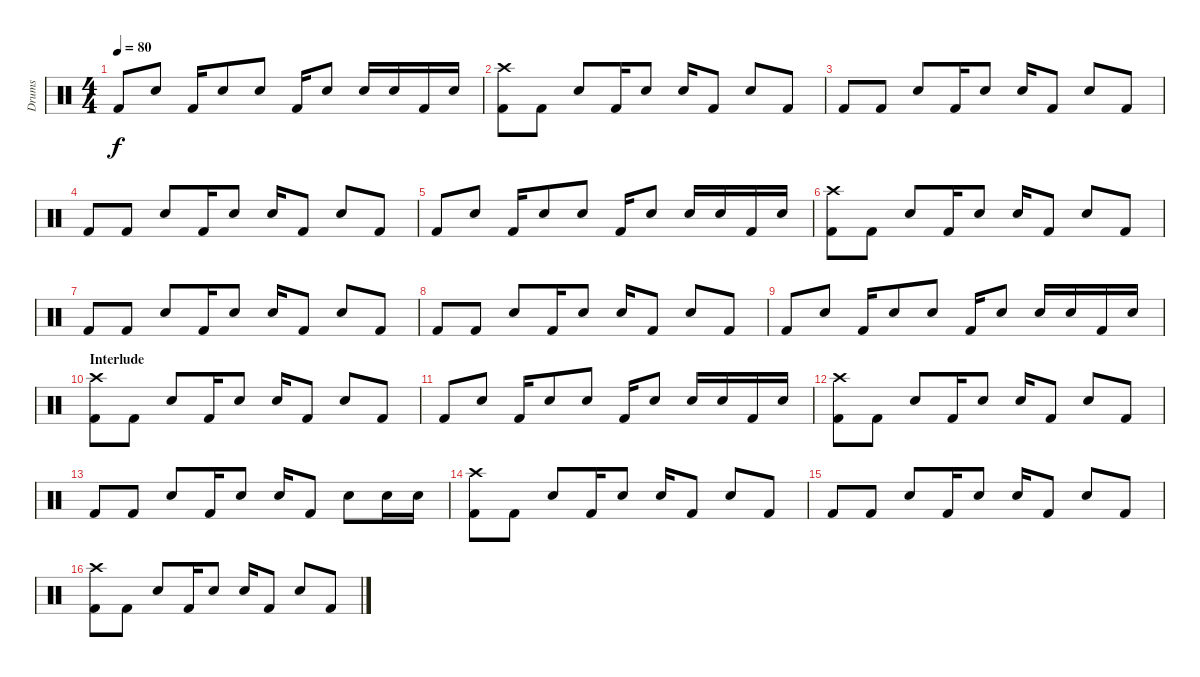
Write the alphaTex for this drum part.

\track ("Drums" "Drums") {instrument percussion}
\staff {score}
\articulation defaults
\ts (4 4)
\tempo 80
\clef neutral
\ks c "Kick (hit) 2".8{dy f} "Electric Snare (hit)".8 "Kick (hit) 2".16 "Electric Snare (hit)".8 "Electric Snare (hit)".8 "Kick (hit) 2".16 "Electric Snare (hit)".8 "Electric Snare (hit)".16 "Electric Snare (hit)".16 "Kick (hit) 2".16 "Electric Snare (hit)".16
|
("Crash high (hit)" "Kick (hit) 2").8 "Kick (hit) 2".8 "Electric Snare (hit)".8 "Kick (hit) 2".16 "Electric Snare (hit)".8 "Electric Snare (hit)".16 "Kick (hit) 2".8 "Electric Snare (hit)".8 "Kick (hit) 2".8 |
"Kick (hit) 2".8 "Kick (hit) 2".8 "Electric Snare (hit)".8 "Kick (hit) 2".16 "Electric Snare (hit)".8 "Electric Snare (hit)".16 "Kick (hit) 2".8 "Electric Snare (hit)".8 "Kick (hit) 2".8 |
"Kick (hit) 2".8 "Kick (hit) 2".8 "Electric Snare (hit)".8 "Kick (hit) 2".16 "Electric Snare (hit)".8 "Electric Snare (hit)".16 "Kick (hit) 2".8 "Electric Snare (hit)".8 "Kick (hit) 2".8 |
"Kick (hit) 2".8 "Electric Snare (hit)".8 "Kick (hit) 2".16 "Electric Snare (hit)".8 "Electric Snare (hit)".8 "Kick (hit) 2".16 "Electric Snare (hit)".8 "Electric Snare (hit)".16 "Electric Snare (hit)".16 "Kick (hit) 2".16 "Electric Snare (hit)".16 |
("Crash high (hit)" "Kick (hit) 2").8 "Kick (hit) 2".8 "Electric Snare (hit)".8 "Kick (hit) 2".16 "Electric Snare (hit)".8 "Electric Snare (hit)".16 "Kick (hit) 2".8 "Electric Snare (hit)".8 "Kick (hit) 2".8 |
"Kick (hit) 2".8 "Kick (hit) 2".8 "Electric Snare (hit)".8 "Kick (hit) 2".16 "Electric Snare (hit)".8 "Electric Snare (hit)".16 "Kick (hit) 2".8 "Electric Snare (hit)".8 "Kick (hit) 2".8 |
"Kick (hit) 2".8 "Kick (hit) 2".8 "Electric Snare (hit)".8 "Kick (hit) 2".16 "Electric Snare (hit)".8 "Electric Snare (hit)".16 "Kick (hit) 2".8 "Electric Snare (hit)".8 "Kick (hit) 2".8 |
"Kick (hit) 2".8 "Electric Snare (hit)".8 "Kick (hit) 2".16 "Electric Snare (hit)".8 "Electric Snare (hit)".8 "Kick (hit) 2".16 "Electric Snare (hit)".8 "Electric Snare (hit)".16 "Electric Snare (hit)".16 "Kick (hit) 2".16 "Electric Snare (hit)".16 |
\section ("" "Interlude")
("Crash high (hit)" "Kick (hit) 2").8 "Kick (hit) 2".8 "Electric Snare (hit)".8 "Kick (hit) 2".16 "Electric Snare (hit)".8 "Electric Snare (hit)".16 "Kick (hit) 2".8 "Electric Snare (hit)".8 "Kick (hit) 2".8 |
"Kick (hit) 2".8 "Electric Snare (hit)".8 "Kick (hit) 2".16 "Electric Snare (hit)".8 "Electric Snare (hit)".8 "Kick (hit) 2".16 "Electric Snare (hit)".8 "Electric Snare (hit)".16 "Electric Snare (hit)".16 "Kick (hit) 2".16 "Electric Snare (hit)".16 |
("Crash high (hit)" "Kick (hit) 2").8 "Kick (hit) 2".8 "Electric Snare (hit)".8 "Kick (hit) 2".16 "Electric Snare (hit)".8 "Electric Snare (hit)".16 "Kick (hit) 2".8 "Electric Snare (hit)".8 "Kick (hit) 2".8 |
"Kick (hit) 2".8 "Kick (hit) 2".8 "Electric Snare (hit)".8 "Kick (hit) 2".16 "Electric Snare (hit)".8 "Electric Snare (hit)".16 "Kick (hit) 2".8 "Electric Snare (hit)".8 "Electric Snare (hit)".16 "Electric Snare (hit)".16 |
("Crash high (hit)" "Kick (hit) 2").8 "Kick (hit) 2".8 "Electric Snare (hit)".8 "Kick (hit) 2".16 "Electric Snare (hit)".8 "Electric Snare (hit)".16 "Kick (hit) 2".8 "Electric Snare (hit)".8 "Kick (hit) 2".8 |
"Kick (hit) 2".8 "Kick (hit) 2".8 "Electric Snare (hit)".8 "Kick (hit) 2".16 "Electric Snare (hit)".8 "Electric Snare (hit)".16 "Kick (hit) 2".8 "Electric Snare (hit)".8 "Kick (hit) 2".8 |
("Crash high (hit)" "Kick (hit) 2").8 "Kick (hit) 2".8 "Electric Snare (hit)".8 "Kick (hit) 2".16 "Electric Snare (hit)".8 "Electric Snare (hit)".16 "Kick (hit) 2".8 "Electric Snare (hit)".8 "Kick (hit) 2".8
